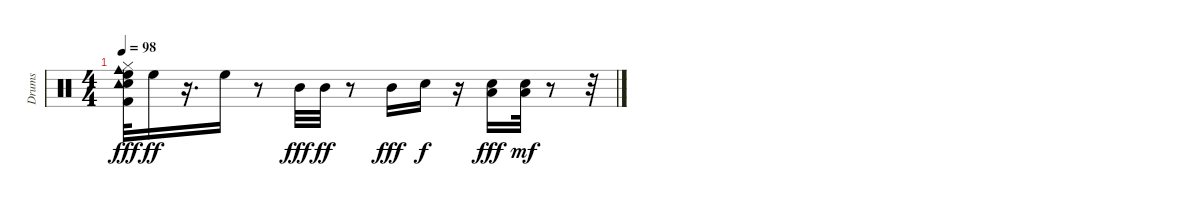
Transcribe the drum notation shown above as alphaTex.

\track ("Drums" "Drums") {instrument percussion}
\staff {score}
\articulation defaults
\ts (4 4)
\tempo 98
\clef neutral
\ks c
("Electric Snare (hit)" "Tambourine (hit)" "Kick (hit) 2" "Hi-Hat (closed)" "Cowbell medium (hit)" "High Floor Tom (hit)").32{dy fff} "High Floor Tom (hit)".16{dy ff} r.16{d} "High Floor Tom (hit)".16 r.8 "Mid Tom (hit)".32{dy fff} "Mid Tom (hit)".32{dy ff} r.8 "Mid Tom (hit)".16{dy fff} "Electric Snare (hit)".16{dy f} r.16 ("Electric Snare (hit)" "Low Floor Tom (hit)").16{dy fff} ("Low Floor Tom (hit)" "Electric Snare (hit)").32{dy mf} r.8 r.32
